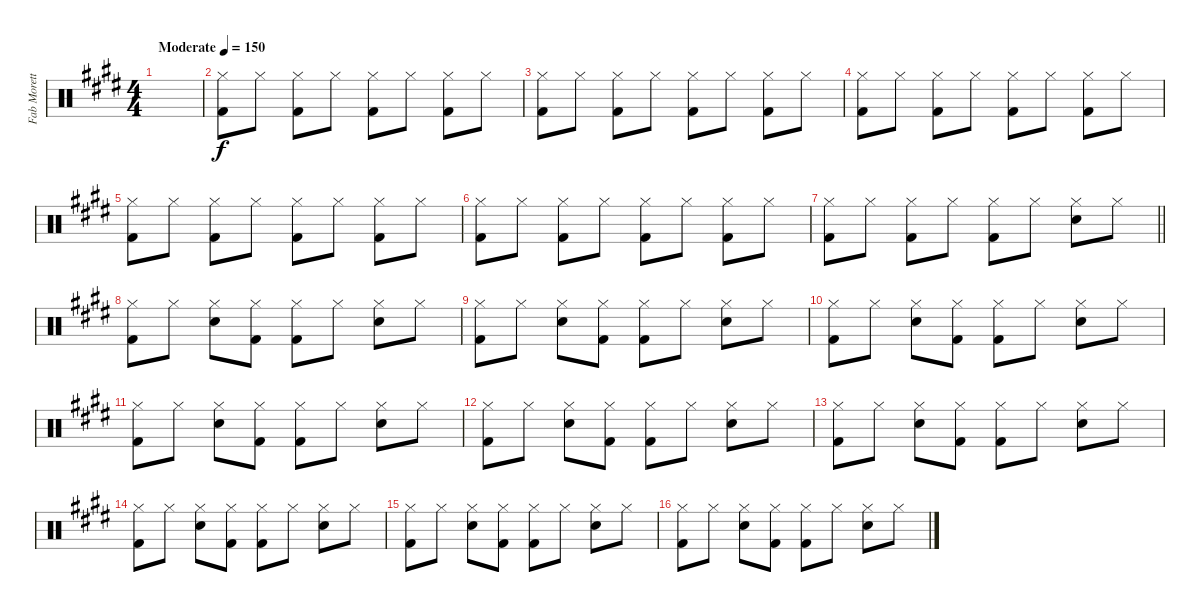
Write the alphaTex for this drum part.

\track ("Fab Moretti - Drums" "Fab Morett") {instrument percussion}
\staff {score}
\articulation defaults
\ts (4 4)
\tempo (150 "Moderate")
\clef neutral
\ks e
|
("Hi-Hat (closed)" "Kick (hit) 2").8 "Hi-Hat (closed)".8 ("Hi-Hat (closed)" "Kick (hit) 2").8 "Hi-Hat (closed)".8 ("Hi-Hat (closed)" "Kick (hit) 2").8 "Hi-Hat (closed)".8 ("Hi-Hat (closed)" "Kick (hit) 2").8 "Hi-Hat (closed)".8 |
("Hi-Hat (closed)" "Kick (hit) 2").8 "Hi-Hat (closed)".8 ("Hi-Hat (closed)" "Kick (hit) 2").8 "Hi-Hat (closed)".8 ("Hi-Hat (closed)" "Kick (hit) 2").8 "Hi-Hat (closed)".8 ("Hi-Hat (closed)" "Kick (hit) 2").8 "Hi-Hat (closed)".8 |
("Hi-Hat (closed)" "Kick (hit) 2").8 "Hi-Hat (closed)".8 ("Hi-Hat (closed)" "Kick (hit) 2").8 "Hi-Hat (closed)".8 ("Hi-Hat (closed)" "Kick (hit) 2").8 "Hi-Hat (closed)".8 ("Hi-Hat (closed)" "Kick (hit) 2").8 "Hi-Hat (closed)".8 |
("Hi-Hat (closed)" "Kick (hit) 2").8 "Hi-Hat (closed)".8 ("Hi-Hat (closed)" "Kick (hit) 2").8 "Hi-Hat (closed)".8 ("Hi-Hat (closed)" "Kick (hit) 2").8 "Hi-Hat (closed)".8 ("Hi-Hat (closed)" "Kick (hit) 2").8 "Hi-Hat (closed)".8 |
("Hi-Hat (closed)" "Kick (hit) 2").8 "Hi-Hat (closed)".8 ("Hi-Hat (closed)" "Kick (hit) 2").8 "Hi-Hat (closed)".8 ("Hi-Hat (closed)" "Kick (hit) 2").8 "Hi-Hat (closed)".8 ("Hi-Hat (closed)" "Kick (hit) 2").8 "Hi-Hat (closed)".8 |
\barLineRight lightlight
("Hi-Hat (closed)" "Kick (hit) 2").8 "Hi-Hat (closed)".8 ("Hi-Hat (closed)" "Kick (hit) 2").8 "Hi-Hat (closed)".8 ("Hi-Hat (closed)" "Kick (hit) 2").8 "Hi-Hat (closed)".8 ("Hi-Hat (closed)" "Snare (hit) 2").8 "Hi-Hat (closed)".8 |
("Hi-Hat (closed)" "Kick (hit) 2").8 "Hi-Hat (closed)".8 ("Hi-Hat (closed)" "Snare (hit) 2").8 ("Hi-Hat (closed)" "Kick (hit) 2").8 ("Hi-Hat (closed)" "Kick (hit) 2").8 "Hi-Hat (closed)".8 ("Hi-Hat (closed)" "Snare (hit) 2").8 "Hi-Hat (closed)".8 |
("Hi-Hat (closed)" "Kick (hit) 2").8 "Hi-Hat (closed)".8 ("Hi-Hat (closed)" "Snare (hit) 2").8 ("Hi-Hat (closed)" "Kick (hit) 2").8 ("Hi-Hat (closed)" "Kick (hit) 2").8 "Hi-Hat (closed)".8 ("Hi-Hat (closed)" "Snare (hit) 2").8 "Hi-Hat (closed)".8 |
("Hi-Hat (closed)" "Kick (hit) 2").8 "Hi-Hat (closed)".8 ("Hi-Hat (closed)" "Snare (hit) 2").8 ("Hi-Hat (closed)" "Kick (hit) 2").8 ("Hi-Hat (closed)" "Kick (hit) 2").8 "Hi-Hat (closed)".8 ("Hi-Hat (closed)" "Snare (hit) 2").8 "Hi-Hat (closed)".8 |
("Hi-Hat (closed)" "Kick (hit) 2").8 "Hi-Hat (closed)".8 ("Hi-Hat (closed)" "Snare (hit) 2").8 ("Hi-Hat (closed)" "Kick (hit) 2").8 ("Hi-Hat (closed)" "Kick (hit) 2").8 "Hi-Hat (closed)".8 ("Hi-Hat (closed)" "Snare (hit) 2").8 "Hi-Hat (closed)".8 |
("Hi-Hat (closed)" "Kick (hit) 2").8 "Hi-Hat (closed)".8 ("Hi-Hat (closed)" "Snare (hit) 2").8 ("Hi-Hat (closed)" "Kick (hit) 2").8 ("Hi-Hat (closed)" "Kick (hit) 2").8 "Hi-Hat (closed)".8 ("Hi-Hat (closed)" "Snare (hit) 2").8 "Hi-Hat (closed)".8 |
("Hi-Hat (closed)" "Kick (hit) 2").8 "Hi-Hat (closed)".8 ("Hi-Hat (closed)" "Snare (hit) 2").8 ("Hi-Hat (closed)" "Kick (hit) 2").8 ("Hi-Hat (closed)" "Kick (hit) 2").8 "Hi-Hat (closed)".8 ("Hi-Hat (closed)" "Snare (hit) 2").8 "Hi-Hat (closed)".8 |
("Hi-Hat (closed)" "Kick (hit) 2").8 "Hi-Hat (closed)".8 ("Hi-Hat (closed)" "Snare (hit) 2").8 ("Hi-Hat (closed)" "Kick (hit) 2").8 ("Hi-Hat (closed)" "Kick (hit) 2").8 "Hi-Hat (closed)".8 ("Hi-Hat (closed)" "Snare (hit) 2").8 "Hi-Hat (closed)".8 |
("Hi-Hat (closed)" "Kick (hit) 2").8 "Hi-Hat (closed)".8 ("Hi-Hat (closed)" "Snare (hit) 2").8 ("Hi-Hat (closed)" "Kick (hit) 2").8 ("Hi-Hat (closed)" "Kick (hit) 2").8 "Hi-Hat (closed)".8 ("Hi-Hat (closed)" "Snare (hit) 2").8 "Hi-Hat (closed)".8 |
("Hi-Hat (closed)" "Kick (hit) 2").8 "Hi-Hat (closed)".8 ("Hi-Hat (closed)" "Snare (hit) 2").8 ("Hi-Hat (closed)" "Kick (hit) 2").8 ("Hi-Hat (closed)" "Kick (hit) 2").8 "Hi-Hat (closed)".8 ("Hi-Hat (closed)" "Snare (hit) 2").8 "Hi-Hat (closed)".8
